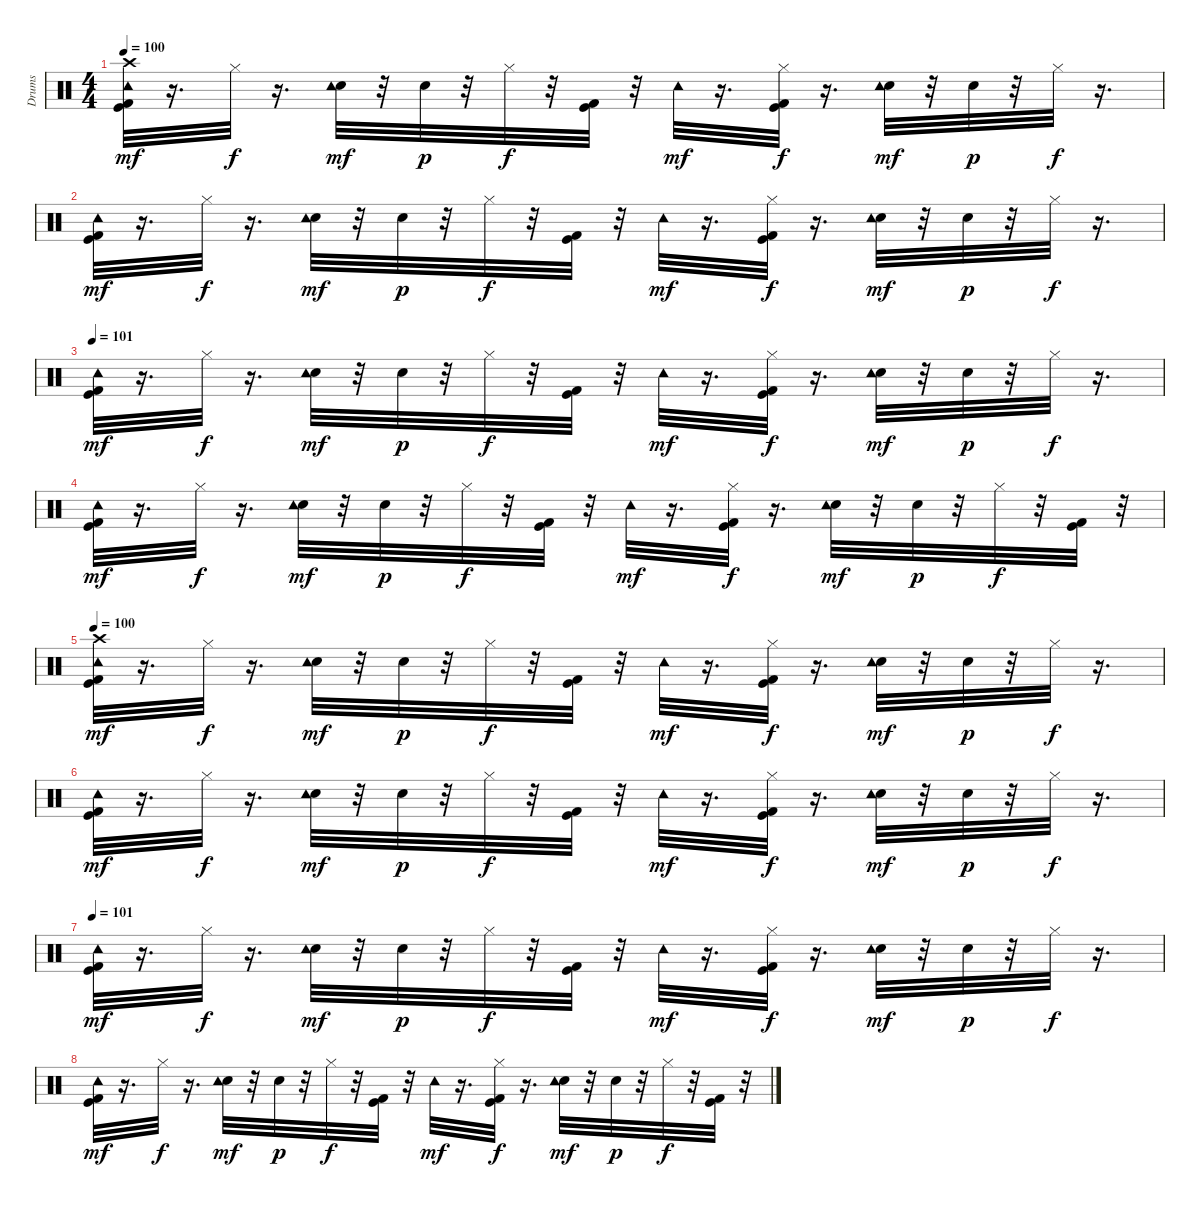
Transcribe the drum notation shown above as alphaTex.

\track ("Drums" "Drums") {instrument percussion}
\staff {score}
\articulation defaults
\ts (4 4)
\tempo 100
\clef neutral
\ks c
("Kick (hit)" "Kick (hit) 2" "Crash high (hit)" "Tambourine (hit)").32{dy mf} r.16{d} "Hi-Hat (closed)".32{dy f} r.16{d} ("Hand Clap (hit)" "Tambourine (hit)").32{dy mf} r.32 "Hand Clap (hit)".32{dy p} r.32 "Hi-Hat (closed)".32{dy f} r.32 ("Kick (hit)" "Kick (hit) 2").32 r.32 "Tambourine (hit)".32{dy mf} r.16{d} ("Kick (hit)" "Kick (hit) 2" "Hi-Hat (closed)").32{dy f} r.16{d} ("Hand Clap (hit)" "Tambourine (hit)").32{dy mf} r.32 "Hand Clap (hit)".32{dy p} r.32 "Hi-Hat (closed)".32{dy f} r.16{d} |
("Kick (hit)" "Kick (hit) 2" "Tambourine (hit)").32{dy mf} r.16{d} "Hi-Hat (closed)".32{dy f} r.16{d} ("Hand Clap (hit)" "Tambourine (hit)").32{dy mf} r.32 "Hand Clap (hit)".32{dy p} r.32 "Hi-Hat (closed)".32{dy f} r.32 ("Kick (hit)" "Kick (hit) 2").32 r.32 "Tambourine (hit)".32{dy mf} r.16{d} ("Kick (hit)" "Kick (hit) 2" "Hi-Hat (closed)").32{dy f} r.16{d} ("Hand Clap (hit)" "Tambourine (hit)").32{dy mf} r.32 "Hand Clap (hit)".32{dy p} r.32 "Hi-Hat (closed)".32{dy f} r.16{d} |
\tempo 101
("Kick (hit)" "Kick (hit) 2" "Tambourine (hit)").32{dy mf} r.16{d} "Hi-Hat (closed)".32{dy f} r.16{d} ("Hand Clap (hit)" "Tambourine (hit)").32{dy mf} r.32 "Hand Clap (hit)".32{dy p} r.32 "Hi-Hat (closed)".32{dy f} r.32 ("Kick (hit)" "Kick (hit) 2").32 r.32 "Tambourine (hit)".32{dy mf} r.16{d} ("Kick (hit)" "Kick (hit) 2" "Hi-Hat (closed)").32{dy f} r.16{d} ("Hand Clap (hit)" "Tambourine (hit)").32{dy mf} r.32 "Hand Clap (hit)".32{dy p} r.32 "Hi-Hat (closed)".32{dy f} r.16{d} |
("Kick (hit)" "Kick (hit) 2" "Tambourine (hit)").32{dy mf} r.16{d} "Hi-Hat (closed)".32{dy f} r.16{d} ("Hand Clap (hit)" "Tambourine (hit)").32{dy mf} r.32 "Hand Clap (hit)".32{dy p} r.32 "Hi-Hat (closed)".32{dy f} r.32 ("Kick (hit)" "Kick (hit) 2").32 r.32 "Tambourine (hit)".32{dy mf} r.16{d} ("Kick (hit)" "Kick (hit) 2" "Hi-Hat (closed)").32{dy f} r.16{d} ("Hand Clap (hit)" "Tambourine (hit)").32{dy mf} r.32 "Hand Clap (hit)".32{dy p} r.32 "Hi-Hat (closed)".32{dy f} r.32 ("Kick (hit)" "Kick (hit) 2").32 r.32 |
\tempo 100
("Kick (hit)" "Kick (hit) 2" "Crash high (hit)" "Tambourine (hit)").32{dy mf} r.16{d} "Hi-Hat (closed)".32{dy f} r.16{d} ("Hand Clap (hit)" "Tambourine (hit)").32{dy mf} r.32 "Hand Clap (hit)".32{dy p} r.32 "Hi-Hat (closed)".32{dy f} r.32 ("Kick (hit)" "Kick (hit) 2").32 r.32 "Tambourine (hit)".32{dy mf} r.16{d} ("Kick (hit)" "Kick (hit) 2" "Hi-Hat (closed)").32{dy f} r.16{d} ("Hand Clap (hit)" "Tambourine (hit)").32{dy mf} r.32 "Hand Clap (hit)".32{dy p} r.32 "Hi-Hat (closed)".32{dy f} r.16{d} |
("Kick (hit)" "Kick (hit) 2" "Tambourine (hit)").32{dy mf} r.16{d} "Hi-Hat (closed)".32{dy f} r.16{d} ("Hand Clap (hit)" "Tambourine (hit)").32{dy mf} r.32 "Hand Clap (hit)".32{dy p} r.32 "Hi-Hat (closed)".32{dy f} r.32 ("Kick (hit)" "Kick (hit) 2").32 r.32 "Tambourine (hit)".32{dy mf} r.16{d} ("Kick (hit)" "Kick (hit) 2" "Hi-Hat (closed)").32{dy f} r.16{d} ("Hand Clap (hit)" "Tambourine (hit)").32{dy mf} r.32 "Hand Clap (hit)".32{dy p} r.32 "Hi-Hat (closed)".32{dy f} r.16{d} |
\tempo 101
("Kick (hit)" "Kick (hit) 2" "Tambourine (hit)").32{dy mf} r.16{d} "Hi-Hat (closed)".32{dy f} r.16{d} ("Hand Clap (hit)" "Tambourine (hit)").32{dy mf} r.32 "Hand Clap (hit)".32{dy p} r.32 "Hi-Hat (closed)".32{dy f} r.32 ("Kick (hit)" "Kick (hit) 2").32 r.32 "Tambourine (hit)".32{dy mf} r.16{d} ("Kick (hit)" "Kick (hit) 2" "Hi-Hat (closed)").32{dy f} r.16{d} ("Hand Clap (hit)" "Tambourine (hit)").32{dy mf} r.32 "Hand Clap (hit)".32{dy p} r.32 "Hi-Hat (closed)".32{dy f} r.16{d} |
("Kick (hit)" "Kick (hit) 2" "Tambourine (hit)").32{dy mf} r.16{d} "Hi-Hat (closed)".32{dy f} r.16{d} ("Hand Clap (hit)" "Tambourine (hit)").32{dy mf} r.32 "Hand Clap (hit)".32{dy p} r.32 "Hi-Hat (closed)".32{dy f} r.32 ("Kick (hit)" "Kick (hit) 2").32 r.32 "Tambourine (hit)".32{dy mf} r.16{d} ("Kick (hit)" "Kick (hit) 2" "Hi-Hat (closed)").32{dy f} r.16{d} ("Hand Clap (hit)" "Tambourine (hit)").32{dy mf} r.32 "Hand Clap (hit)".32{dy p} r.32 "Hi-Hat (closed)".32{dy f} r.32 ("Kick (hit)" "Kick (hit) 2").32 r.32
